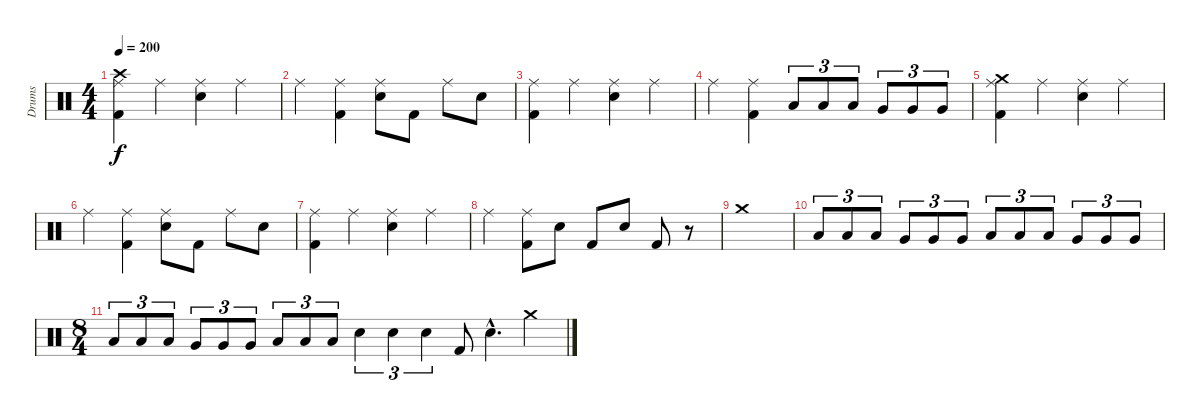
\track ("Drums" "Drums") {instrument percussion}
\staff {score}
\articulation defaults
\ts (4 4)
\tempo 200
\clef neutral
\ks c
("Ride (middle)" "Crash high (hit)" "Kick (hit) 2").4{dy f} "Ride (middle)".4 ("Ride (middle)" "Snare (hit) 2").4 "Ride (middle)".4 |
"Ride (middle)".4 ("Ride (middle)" "Kick (hit) 2").4 ("Ride (middle)" "Snare (hit) 2").8 "Kick (hit) 2".8 "Ride (middle)".8 "Snare (hit) 2".8 |
("Ride (middle)" "Kick (hit) 2").4 "Ride (middle)".4 ("Ride (middle)" "Snare (hit) 2").4 "Ride (middle)".4 |
"Ride (middle)".4 ("Ride (middle)" "Kick (hit) 2").4 "Low Tom (hit)".8{tu (3 2)} "Low Tom (hit)".8{tu (3 2)} "Low Tom (hit)".8{tu (3 2)} "Very Low Tom (hit)".8{tu (3 2)} "Very Low Tom (hit)".8{tu (3 2)} "Very Low Tom (hit)".8{tu (3 2)} |
("Ride (middle)" "Crash medium (hit)" "Kick (hit) 2").4 "Ride (middle)".4 ("Ride (middle)" "Snare (hit) 2").4 "Ride (middle)".4 |
"Ride (middle)".4 ("Ride (middle)" "Kick (hit) 2").4 ("Ride (middle)" "Snare (hit) 2").8 "Kick (hit) 2".8 "Ride (middle)".8 "Snare (hit) 2".8 |
("Ride (middle)" "Kick (hit) 2").4 "Ride (middle)".4 ("Ride (middle)" "Snare (hit) 2").4 "Ride (middle)".4 |
"Ride (middle)".4 ("Ride (middle)" "Kick (hit) 2").8 "Snare (hit) 2".8 "Kick (hit) 2".8 "Snare (hit) 2".8 "Kick (hit) 2".8 r.8 |
"Crash medium (hit)".1 |
"Low Tom (hit)".8{tu (3 2)} "Low Tom (hit)".8{tu (3 2)} "Low Tom (hit)".8{tu (3 2)} "Very Low Tom (hit)".8{tu (3 2)} "Very Low Tom (hit)".8{tu (3 2)} "Very Low Tom (hit)".8{tu (3 2)} "Low Tom (hit)".8{tu (3 2)} "Low Tom (hit)".8{tu (3 2)} "Low Tom (hit)".8{tu (3 2)} "Very Low Tom (hit)".8{tu (3 2)} "Very Low Tom (hit)".8{tu (3 2)} "Very Low Tom (hit)".8{tu (3 2)} |
\ts (8 4)
"Low Tom (hit)".8{tu (3 2)} "Low Tom (hit)".8{tu (3 2)} "Low Tom (hit)".8{tu (3 2)} "Very Low Tom (hit)".8{tu (3 2)} "Very Low Tom (hit)".8{tu (3 2)} "Very Low Tom (hit)".8{tu (3 2)} "Low Floor Tom (hit)".8{tu (3 2)} "Low Floor Tom (hit)".8{tu (3 2)} "Low Floor Tom (hit)".8{tu (3 2)} "Snare (hit) 2".4{tu (3 2)} "Snare (hit) 2".4{tu (3 2)} "Snare (hit) 2".4{tu (3 2)} "Kick (hit) 2".8 "Snare (hit) 2"{hac}.4{d} "Crash medium (hit)".4
